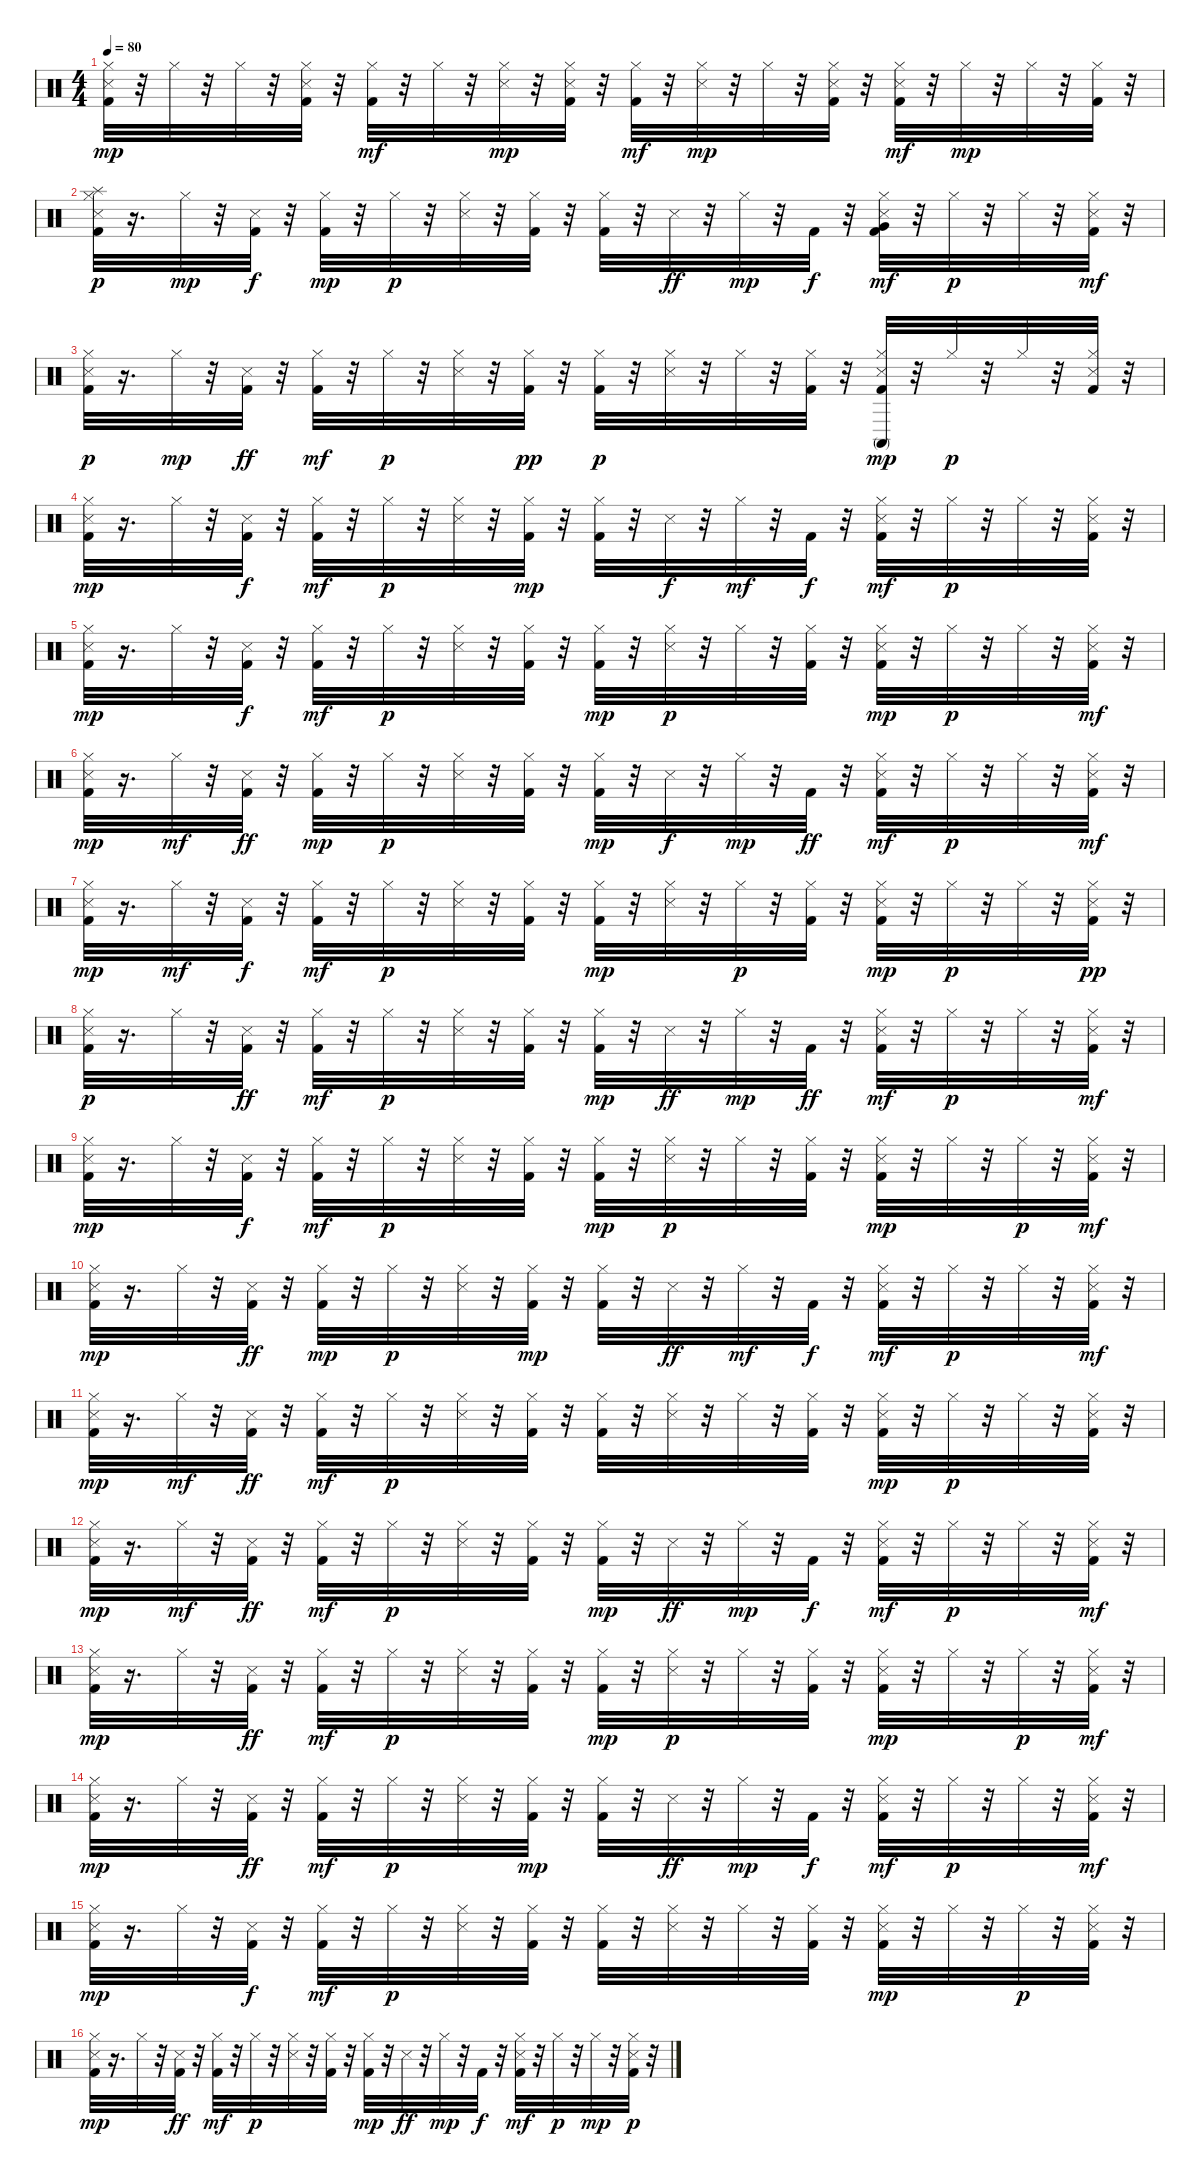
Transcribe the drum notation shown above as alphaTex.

\track "" {instrument percussion}
\staff {score}
\articulation defaults
\ts (4 4)
\tempo 80
\clef neutral
\ks c
("Kick (hit) 2" "Snare (side stick) 3" "Hi-Hat (closed)").32{dy mp} r.32 "Hi-Hat (closed)".32 r.32 "Hi-Hat (closed)".32 r.32 ("Kick (hit) 2" "Snare (side stick) 3" "Hi-Hat (closed)").32 r.32 ("Kick (hit) 2" "Hi-Hat (closed)").32{dy mf} r.32 "Hi-Hat (closed)".32 r.32 ("Snare (side stick) 3" "Hi-Hat (closed)").32{dy mp} r.32 ("Kick (hit) 2" "Snare (side stick) 3" "Hi-Hat (closed)").32 r.32 ("Kick (hit) 2" "Hi-Hat (closed)").32{dy mf} r.32 ("Snare (side stick) 3" "Hi-Hat (closed)").32{dy mp} r.32 "Hi-Hat (closed)".32 r.32 ("Kick (hit) 2" "Snare (side stick) 3" "Hi-Hat (closed)").32 r.32 ("Kick (hit) 2" "Snare (side stick) 3" "Hi-Hat (closed)").32{dy mf} r.32 "Hi-Hat (closed)".32{dy mp} r.32 "Hi-Hat (closed)".32 r.32 ("Kick (hit) 2" "Hi-Hat (closed)").32 r.32 |
("Kick (hit) 2" "Snare (side stick) 3" "Hi-Hat (closed)" "Splash (hit)").32{dy p} r.16{d} "Hi-Hat (closed)".32{dy mp} r.32 ("Kick (hit) 2" "Snare (side stick) 3").32{dy f} r.32 ("Kick (hit) 2" "Hi-Hat (closed)").32{dy mp} r.32 "Hi-Hat (closed)".32{dy p} r.32 ("Snare (side stick) 3" "Hi-Hat (closed)").32 r.32 ("Kick (hit) 2" "Hi-Hat (closed)").32 r.32 ("Kick (hit) 2" "Hi-Hat (closed)").32 r.32 "Snare (side stick) 3".32{dy ff} r.32 "Hi-Hat (closed)".32{dy mp} r.32 "Kick (hit) 2".32{dy f} r.32 ("Kick (hit) 2" "Snare (side stick) 3" "Hi-Hat (closed)" "Very Low Tom (hit)").32{dy mf} r.32 "Hi-Hat (closed)".32{dy p} r.32 "Hi-Hat (closed)".32 r.32 ("Kick (hit) 2" "Hi-Hat (closed)" "Snare (side stick) 3").32{dy mf} r.32 |
("Kick (hit) 2" "Snare (side stick) 3" "Hi-Hat (closed)").32{dy p} r.16{d} "Hi-Hat (closed)".32{dy mp} r.32 ("Kick (hit) 2" "Snare (side stick) 3").32{dy ff} r.32 ("Kick (hit) 2" "Hi-Hat (closed)").32{dy mf} r.32 "Hi-Hat (closed)".32{dy p} r.32 ("Snare (side stick) 3" "Hi-Hat (closed)").32 r.32 ("Kick (hit) 2" "Hi-Hat (closed)").32{dy pp} r.32 ("Kick (hit) 2" "Hi-Hat (closed)").32{dy p} r.32 ("Snare (side stick) 3" "Hi-Hat (closed)").32 r.32 "Hi-Hat (closed)".32 r.32 ("Kick (hit) 2" "Hi-Hat (closed)").32 r.32 ("Kick (hit) 2" "Snare (side stick) 3" "Hi-Hat (closed)" "Conga high (mute)").32{dy mp} r.32 "Hi-Hat (closed)".32{dy p} r.32 "Hi-Hat (closed)".32 r.32 ("Kick (hit) 2" "Hi-Hat (closed)" "Snare (side stick) 3").32 r.32 |
("Kick (hit) 2" "Snare (side stick) 3" "Hi-Hat (closed)").32{dy mp} r.16{d} "Hi-Hat (closed)".32 r.32 ("Kick (hit) 2" "Snare (side stick) 3").32{dy f} r.32 ("Kick (hit) 2" "Hi-Hat (closed)").32{dy mf} r.32 "Hi-Hat (closed)".32{dy p} r.32 ("Snare (side stick) 3" "Hi-Hat (closed)").32 r.32 ("Kick (hit) 2" "Hi-Hat (closed)").32{dy mp} r.32 ("Kick (hit) 2" "Hi-Hat (closed)").32 r.32 "Snare (side stick) 3".32{dy f} r.32 "Hi-Hat (closed)".32{dy mf} r.32 "Kick (hit) 2".32{dy f} r.32 ("Kick (hit) 2" "Snare (side stick) 3" "Hi-Hat (closed)").32{dy mf} r.32 "Hi-Hat (closed)".32{dy p} r.32 "Hi-Hat (closed)".32 r.32 ("Kick (hit) 2" "Hi-Hat (closed)" "Snare (side stick) 3").32 r.32 |
("Kick (hit) 2" "Snare (side stick) 3" "Hi-Hat (closed)").32{dy mp} r.16{d} "Hi-Hat (closed)".32 r.32 ("Kick (hit) 2" "Snare (side stick) 3").32{dy f} r.32 ("Kick (hit) 2" "Hi-Hat (closed)").32{dy mf} r.32 "Hi-Hat (closed)".32{dy p} r.32 ("Snare (side stick) 3" "Hi-Hat (closed)").32 r.32 ("Kick (hit) 2" "Hi-Hat (closed)").32 r.32 ("Kick (hit) 2" "Hi-Hat (closed)").32{dy mp} r.32 ("Snare (side stick) 3" "Hi-Hat (closed)").32{dy p} r.32 "Hi-Hat (closed)".32 r.32 ("Kick (hit) 2" "Hi-Hat (closed)").32 r.32 ("Kick (hit) 2" "Snare (side stick) 3" "Hi-Hat (closed)").32{dy mp} r.32 "Hi-Hat (closed)".32{dy p} r.32 "Hi-Hat (closed)".32 r.32 ("Kick (hit) 2" "Hi-Hat (closed)" "Snare (side stick) 3").32{dy mf} r.32 |
("Kick (hit) 2" "Snare (side stick) 3" "Hi-Hat (closed)").32{dy mp} r.16{d} "Hi-Hat (closed)".32{dy mf} r.32 ("Kick (hit) 2" "Snare (side stick) 3").32{dy ff} r.32 ("Kick (hit) 2" "Hi-Hat (closed)").32{dy mp} r.32 "Hi-Hat (closed)".32{dy p} r.32 ("Snare (side stick) 3" "Hi-Hat (closed)").32 r.32 ("Kick (hit) 2" "Hi-Hat (closed)").32 r.32 ("Kick (hit) 2" "Hi-Hat (closed)").32{dy mp} r.32 "Snare (side stick) 3".32{dy f} r.32 "Hi-Hat (closed)".32{dy mp} r.32 "Kick (hit) 2".32{dy ff} r.32 ("Kick (hit) 2" "Snare (side stick) 3" "Hi-Hat (closed)").32{dy mf} r.32 "Hi-Hat (closed)".32{dy p} r.32 "Hi-Hat (closed)".32 r.32 ("Kick (hit) 2" "Hi-Hat (closed)" "Snare (side stick) 3").32{dy mf} r.32 |
("Kick (hit) 2" "Snare (side stick) 3" "Hi-Hat (closed)").32{dy mp} r.16{d} "Hi-Hat (closed)".32{dy mf} r.32 ("Kick (hit) 2" "Snare (side stick) 3").32{dy f} r.32 ("Kick (hit) 2" "Hi-Hat (closed)").32{dy mf} r.32 "Hi-Hat (closed)".32{dy p} r.32 ("Snare (side stick) 3" "Hi-Hat (closed)").32 r.32 ("Kick (hit) 2" "Hi-Hat (closed)").32 r.32 ("Kick (hit) 2" "Hi-Hat (closed)").32{dy mp} r.32 ("Snare (side stick) 3" "Hi-Hat (closed)").32 r.32 "Hi-Hat (closed)".32{dy p} r.32 ("Kick (hit) 2" "Hi-Hat (closed)").32 r.32 ("Kick (hit) 2" "Snare (side stick) 3" "Hi-Hat (closed)").32{dy mp} r.32 "Hi-Hat (closed)".32{dy p} r.32 "Hi-Hat (closed)".32 r.32 ("Kick (hit) 2" "Hi-Hat (closed)" "Snare (side stick) 3").32{dy pp} r.32 |
("Kick (hit) 2" "Snare (side stick) 3" "Hi-Hat (closed)").32{dy p} r.16{d} "Hi-Hat (closed)".32 r.32 ("Kick (hit) 2" "Snare (side stick) 3").32{dy ff} r.32 ("Kick (hit) 2" "Hi-Hat (closed)").32{dy mf} r.32 "Hi-Hat (closed)".32{dy p} r.32 ("Snare (side stick) 3" "Hi-Hat (closed)").32 r.32 ("Kick (hit) 2" "Hi-Hat (closed)").32 r.32 ("Kick (hit) 2" "Hi-Hat (closed)").32{dy mp} r.32 "Snare (side stick) 3".32{dy ff} r.32 "Hi-Hat (closed)".32{dy mp} r.32 "Kick (hit) 2".32{dy ff} r.32 ("Kick (hit) 2" "Snare (side stick) 3" "Hi-Hat (closed)").32{dy mf} r.32 "Hi-Hat (closed)".32{dy p} r.32 "Hi-Hat (closed)".32 r.32 ("Kick (hit) 2" "Hi-Hat (closed)" "Snare (side stick) 3").32{dy mf} r.32 |
("Kick (hit) 2" "Snare (side stick) 3" "Hi-Hat (closed)").32{dy mp} r.16{d} "Hi-Hat (closed)".32 r.32 ("Kick (hit) 2" "Snare (side stick) 3").32{dy f} r.32 ("Kick (hit) 2" "Hi-Hat (closed)").32{dy mf} r.32 "Hi-Hat (closed)".32{dy p} r.32 ("Snare (side stick) 3" "Hi-Hat (closed)").32 r.32 ("Kick (hit) 2" "Hi-Hat (closed)").32 r.32 ("Kick (hit) 2" "Hi-Hat (closed)").32{dy mp} r.32 ("Snare (side stick) 3" "Hi-Hat (closed)").32{dy p} r.32 "Hi-Hat (closed)".32 r.32 ("Kick (hit) 2" "Hi-Hat (closed)").32 r.32 ("Kick (hit) 2" "Snare (side stick) 3" "Hi-Hat (closed)").32{dy mp} r.32 "Hi-Hat (closed)".32 r.32 "Hi-Hat (closed)".32{dy p} r.32 ("Kick (hit) 2" "Hi-Hat (closed)" "Snare (side stick) 3").32{dy mf} r.32 |
("Kick (hit) 2" "Snare (side stick) 3" "Hi-Hat (closed)").32{dy mp} r.16{d} "Hi-Hat (closed)".32 r.32 ("Kick (hit) 2" "Snare (side stick) 3").32{dy ff} r.32 ("Kick (hit) 2" "Hi-Hat (closed)").32{dy mp} r.32 "Hi-Hat (closed)".32{dy p} r.32 ("Snare (side stick) 3" "Hi-Hat (closed)").32 r.32 ("Kick (hit) 2" "Hi-Hat (closed)").32{dy mp} r.32 ("Kick (hit) 2" "Hi-Hat (closed)").32 r.32 "Snare (side stick) 3".32{dy ff} r.32 "Hi-Hat (closed)".32{dy mf} r.32 "Kick (hit) 2".32{dy f} r.32 ("Kick (hit) 2" "Snare (side stick) 3" "Hi-Hat (closed)").32{dy mf} r.32 "Hi-Hat (closed)".32{dy p} r.32 "Hi-Hat (closed)".32 r.32 ("Kick (hit) 2" "Hi-Hat (closed)" "Snare (side stick) 3").32{dy mf} r.32 |
("Kick (hit) 2" "Snare (side stick) 3" "Hi-Hat (closed)").32{dy mp} r.16{d} "Hi-Hat (closed)".32{dy mf} r.32 ("Kick (hit) 2" "Snare (side stick) 3").32{dy ff} r.32 ("Kick (hit) 2" "Hi-Hat (closed)").32{dy mf} r.32 "Hi-Hat (closed)".32{dy p} r.32 ("Snare (side stick) 3" "Hi-Hat (closed)").32 r.32 ("Kick (hit) 2" "Hi-Hat (closed)").32 r.32 ("Kick (hit) 2" "Hi-Hat (closed)").32 r.32 ("Snare (side stick) 3" "Hi-Hat (closed)").32 r.32 "Hi-Hat (closed)".32 r.32 ("Kick (hit) 2" "Hi-Hat (closed)").32 r.32 ("Kick (hit) 2" "Snare (side stick) 3" "Hi-Hat (closed)").32{dy mp} r.32 "Hi-Hat (closed)".32{dy p} r.32 "Hi-Hat (closed)".32 r.32 ("Kick (hit) 2" "Hi-Hat (closed)" "Snare (side stick) 3").32 r.32 |
("Kick (hit) 2" "Snare (side stick) 3" "Hi-Hat (closed)").32{dy mp} r.16{d} "Hi-Hat (closed)".32{dy mf} r.32 ("Kick (hit) 2" "Snare (side stick) 3").32{dy ff} r.32 ("Kick (hit) 2" "Hi-Hat (closed)").32{dy mf} r.32 "Hi-Hat (closed)".32{dy p} r.32 ("Snare (side stick) 3" "Hi-Hat (closed)").32 r.32 ("Kick (hit) 2" "Hi-Hat (closed)").32 r.32 ("Kick (hit) 2" "Hi-Hat (closed)").32{dy mp} r.32 "Snare (side stick) 3".32{dy ff} r.32 "Hi-Hat (closed)".32{dy mp} r.32 "Kick (hit) 2".32{dy f} r.32 ("Kick (hit) 2" "Snare (side stick) 3" "Hi-Hat (closed)").32{dy mf} r.32 "Hi-Hat (closed)".32{dy p} r.32 "Hi-Hat (closed)".32 r.32 ("Kick (hit) 2" "Hi-Hat (closed)" "Snare (side stick) 3").32{dy mf} r.32 |
("Kick (hit) 2" "Snare (side stick) 3" "Hi-Hat (closed)").32{dy mp} r.16{d} "Hi-Hat (closed)".32 r.32 ("Kick (hit) 2" "Snare (side stick) 3").32{dy ff} r.32 ("Kick (hit) 2" "Hi-Hat (closed)").32{dy mf} r.32 "Hi-Hat (closed)".32{dy p} r.32 ("Snare (side stick) 3" "Hi-Hat (closed)").32 r.32 ("Kick (hit) 2" "Hi-Hat (closed)").32 r.32 ("Kick (hit) 2" "Hi-Hat (closed)").32{dy mp} r.32 ("Snare (side stick) 3" "Hi-Hat (closed)").32{dy p} r.32 "Hi-Hat (closed)".32 r.32 ("Kick (hit) 2" "Hi-Hat (closed)").32 r.32 ("Kick (hit) 2" "Snare (side stick) 3" "Hi-Hat (closed)").32{dy mp} r.32 "Hi-Hat (closed)".32 r.32 "Hi-Hat (closed)".32{dy p} r.32 ("Kick (hit) 2" "Hi-Hat (closed)" "Snare (side stick) 3").32{dy mf} r.32 |
("Kick (hit) 2" "Snare (side stick) 3" "Hi-Hat (closed)").32{dy mp} r.16{d} "Hi-Hat (closed)".32 r.32 ("Kick (hit) 2" "Snare (side stick) 3").32{dy ff} r.32 ("Kick (hit) 2" "Hi-Hat (closed)").32{dy mf} r.32 "Hi-Hat (closed)".32{dy p} r.32 ("Snare (side stick) 3" "Hi-Hat (closed)").32 r.32 ("Kick (hit) 2" "Hi-Hat (closed)").32{dy mp} r.32 ("Kick (hit) 2" "Hi-Hat (closed)").32 r.32 "Snare (side stick) 3".32{dy ff} r.32 "Hi-Hat (closed)".32{dy mp} r.32 "Kick (hit) 2".32{dy f} r.32 ("Kick (hit) 2" "Snare (side stick) 3" "Hi-Hat (closed)").32{dy mf} r.32 "Hi-Hat (closed)".32{dy p} r.32 "Hi-Hat (closed)".32 r.32 ("Kick (hit) 2" "Hi-Hat (closed)" "Snare (side stick) 3").32{dy mf} r.32 |
("Kick (hit) 2" "Snare (side stick) 3" "Hi-Hat (closed)").32{dy mp} r.16{d} "Hi-Hat (closed)".32 r.32 ("Kick (hit) 2" "Snare (side stick) 3").32{dy f} r.32 ("Kick (hit) 2" "Hi-Hat (closed)").32{dy mf} r.32 "Hi-Hat (closed)".32{dy p} r.32 ("Snare (side stick) 3" "Hi-Hat (closed)").32 r.32 ("Kick (hit) 2" "Hi-Hat (closed)").32 r.32 ("Kick (hit) 2" "Hi-Hat (closed)").32 r.32 ("Snare (side stick) 3" "Hi-Hat (closed)").32 r.32 "Hi-Hat (closed)".32 r.32 ("Kick (hit) 2" "Hi-Hat (closed)").32 r.32 ("Kick (hit) 2" "Snare (side stick) 3" "Hi-Hat (closed)").32{dy mp} r.32 "Hi-Hat (closed)".32 r.32 "Hi-Hat (closed)".32{dy p} r.32 ("Kick (hit) 2" "Hi-Hat (closed)" "Snare (side stick) 3").32 r.32 |
("Kick (hit) 2" "Snare (side stick) 3" "Hi-Hat (closed)").32{dy mp} r.16{d} "Hi-Hat (closed)".32 r.32 ("Kick (hit) 2" "Snare (side stick) 3").32{dy ff} r.32 ("Kick (hit) 2" "Hi-Hat (closed)").32{dy mf} r.32 "Hi-Hat (closed)".32{dy p} r.32 ("Snare (side stick) 3" "Hi-Hat (closed)").32 r.32 ("Kick (hit) 2" "Hi-Hat (closed)").32 r.32 ("Kick (hit) 2" "Hi-Hat (closed)").32{dy mp} r.32 "Snare (side stick) 3".32{dy ff} r.32 "Hi-Hat (closed)".32{dy mp} r.32 "Kick (hit) 2".32{dy f} r.32 ("Kick (hit) 2" "Snare (side stick) 3" "Hi-Hat (closed)").32{dy mf} r.32 "Hi-Hat (closed)".32{dy p} r.32 "Hi-Hat (closed)".32{dy mp} r.32 ("Kick (hit) 2" "Hi-Hat (closed)" "Snare (side stick) 3").32{dy p} r.32
